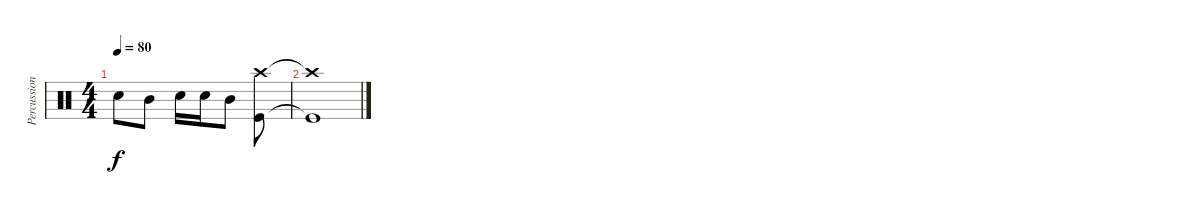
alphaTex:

\track ("Percussion" "Percussion") {instrument percussion}
\staff {score}
\articulation defaults
\ts (4 4)
\tempo 80
\clef neutral
\ks c "Electric Snare (hit)".8{dy f} "Mid Tom (hit)".8 "Electric Snare (hit)".16 "Electric Snare (hit)".16 "Mid Tom (hit)".8
("Crash high (hit)" "Kick (hit)").8{volume 10} |
("Crash high (hit)"{t} "Kick (hit)"{t}).1
